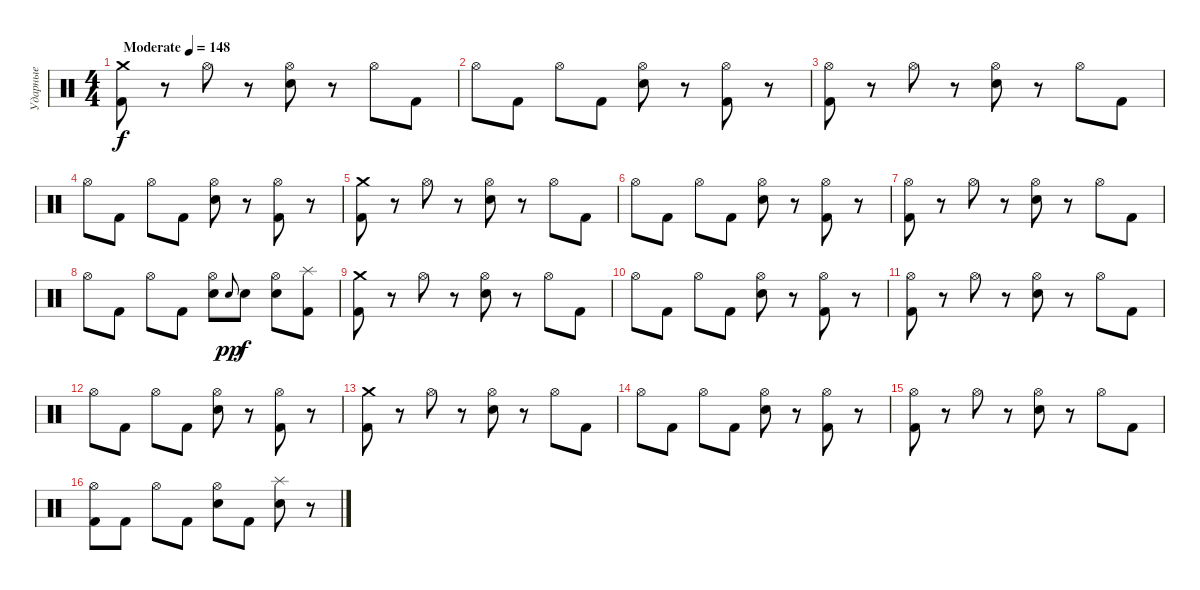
\track ("Ударные" "Ударные") {instrument percussion}
\staff {score}
\articulation defaults
\ts (4 4)
\tempo (148 "Moderate")
\clef neutral
\ks c
("Kick (hit) 2" "Crash medium (hit)").8{dy f} r.8 "Hi-Hat (open)".8 r.8 ("Electric Snare (hit)" "Hi-Hat (open)").8 r.8 "Hi-Hat (open)".8 "Kick (hit) 2".8 |
"Hi-Hat (open)".8 "Kick (hit) 2".8 "Hi-Hat (open)".8 "Kick (hit) 2".8 ("Electric Snare (hit)" "Hi-Hat (open)").8 r.8 ("Kick (hit) 2" "Hi-Hat (open)").8 r.8 |
("Kick (hit) 2" "Hi-Hat (open)").8 r.8 "Hi-Hat (open)".8 r.8 ("Electric Snare (hit)" "Hi-Hat (open)").8 r.8 "Hi-Hat (open)".8 "Kick (hit) 2".8 |
"Hi-Hat (open)".8 "Kick (hit) 2".8 "Hi-Hat (open)".8 "Kick (hit) 2".8 ("Electric Snare (hit)" "Hi-Hat (open)").8 r.8 ("Kick (hit) 2" "Hi-Hat (open)").8 r.8 |
("Kick (hit) 2" "Crash medium (hit)").8 r.8 "Hi-Hat (open)".8 r.8 ("Electric Snare (hit)" "Hi-Hat (open)").8 r.8 "Hi-Hat (open)".8 "Kick (hit) 2".8 |
"Hi-Hat (open)".8 "Kick (hit) 2".8 "Hi-Hat (open)".8 "Kick (hit) 2".8 ("Electric Snare (hit)" "Hi-Hat (open)").8 r.8 ("Kick (hit) 2" "Hi-Hat (open)").8 r.8 |
("Kick (hit) 2" "Hi-Hat (open)").8 r.8 "Hi-Hat (open)".8 r.8 ("Electric Snare (hit)" "Hi-Hat (open)").8 r.8 "Hi-Hat (open)".8 "Kick (hit) 2".8 |
"Hi-Hat (open)".8 "Kick (hit) 2".8 "Hi-Hat (open)".8 "Kick (hit) 2".8 ("Electric Snare (hit)" "Hi-Hat (open)").8 "Electric Snare (hit)".8{gr onbeat dy pp} "Electric Snare (hit)".8{dy f} ("Electric Snare (hit)" "Hi-Hat (open)").8 ("Kick (hit) 2" "Splash (hit)").8 |
("Kick (hit) 2" "Crash medium (hit)").8 r.8 "Hi-Hat (open)".8 r.8 ("Electric Snare (hit)" "Hi-Hat (open)").8 r.8 "Hi-Hat (open)".8 "Kick (hit) 2".8 |
"Hi-Hat (open)".8 "Kick (hit) 2".8 "Hi-Hat (open)".8 "Kick (hit) 2".8 ("Electric Snare (hit)" "Hi-Hat (open)").8 r.8 ("Kick (hit) 2" "Hi-Hat (open)").8 r.8 |
("Kick (hit) 2" "Hi-Hat (open)").8 r.8 "Hi-Hat (open)".8 r.8 ("Electric Snare (hit)" "Hi-Hat (open)").8 r.8 "Hi-Hat (open)".8 "Kick (hit) 2".8 |
"Hi-Hat (open)".8 "Kick (hit) 2".8 "Hi-Hat (open)".8 "Kick (hit) 2".8 ("Electric Snare (hit)" "Hi-Hat (open)").8 r.8 ("Kick (hit) 2" "Hi-Hat (open)").8 r.8 |
("Kick (hit) 2" "Crash medium (hit)").8 r.8 "Hi-Hat (open)".8 r.8 ("Electric Snare (hit)" "Hi-Hat (open)").8 r.8 "Hi-Hat (open)".8 "Kick (hit) 2".8 |
"Hi-Hat (open)".8 "Kick (hit) 2".8 "Hi-Hat (open)".8 "Kick (hit) 2".8 ("Electric Snare (hit)" "Hi-Hat (open)").8 r.8 ("Kick (hit) 2" "Hi-Hat (open)").8 r.8 |
("Kick (hit) 2" "Hi-Hat (open)").8 r.8 "Hi-Hat (open)".8 r.8 ("Electric Snare (hit)" "Hi-Hat (open)").8 r.8 "Hi-Hat (open)".8 "Kick (hit) 2".8 |
("Kick (hit) 2" "Hi-Hat (open)").8 "Kick (hit) 2".8 "Hi-Hat (open)".8 "Kick (hit) 2".8 ("Electric Snare (hit)" "Hi-Hat (open)").8 "Kick (hit) 2".8 ("Electric Snare (hit)" "Splash (hit)").8 r.8
